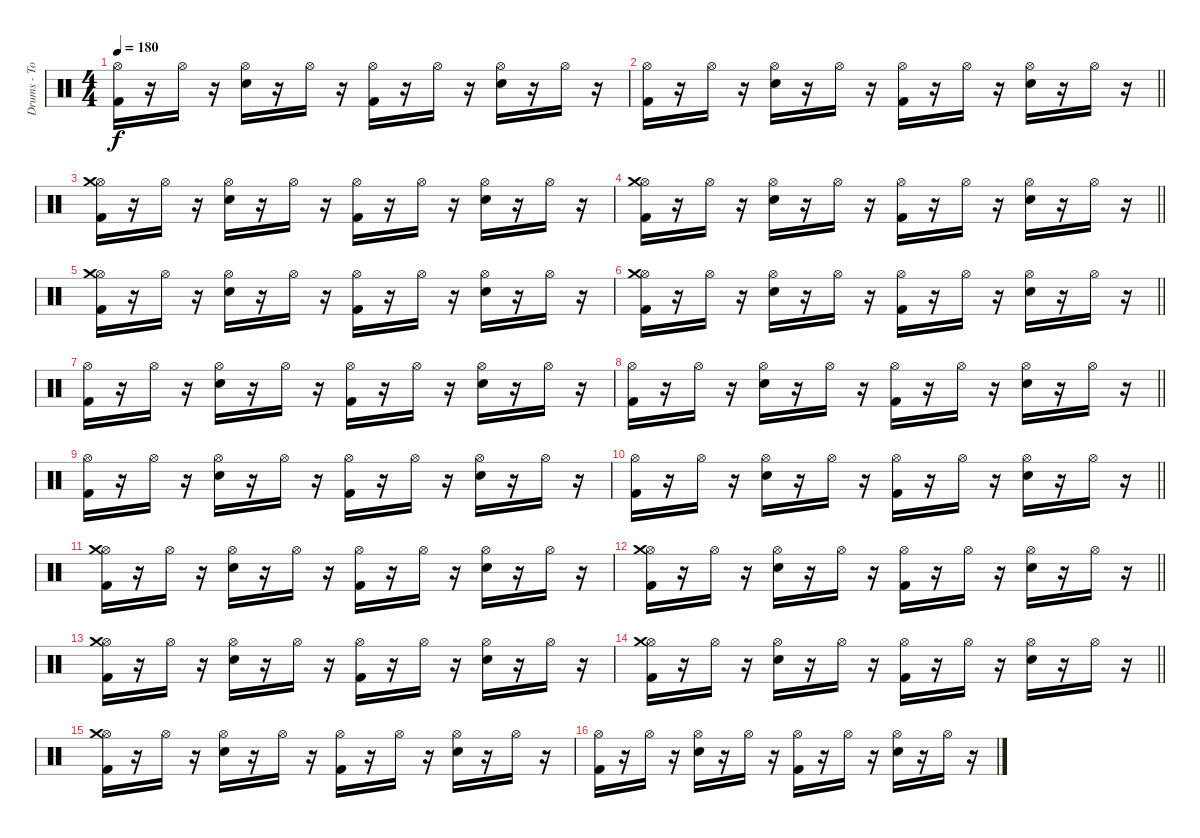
\track ("Drums - Tommy Ramone" "Drums - To") {instrument percussion}
\staff {score}
\articulation defaults
\ts (4 4)
\tempo 180
\clef neutral
\ks c
("Hi-Hat (open)" "Kick (hit) 2").16{dy f} r.16 "Hi-Hat (open)".16 r.16 ("Hi-Hat (open)" "Electric Snare (hit)").16 r.16 "Hi-Hat (open)".16 r.16 ("Hi-Hat (open)" "Kick (hit) 2").16 r.16 "Hi-Hat (open)".16 r.16 ("Hi-Hat (open)" "Electric Snare (hit)").16 r.16 "Hi-Hat (open)".16 r.16 |
\barLineRight lightlight
("Hi-Hat (open)" "Kick (hit) 2").16 r.16 "Hi-Hat (open)".16 r.16 ("Hi-Hat (open)" "Electric Snare (hit)").16 r.16 "Hi-Hat (open)".16 r.16 ("Hi-Hat (open)" "Kick (hit) 2").16 r.16 "Hi-Hat (open)".16 r.16 ("Hi-Hat (open)" "Electric Snare (hit)").16 r.16 "Hi-Hat (open)".16 r.16 |
("Hi-Hat (open)" "Crash medium (hit)" "Kick (hit) 2").16 r.16 "Hi-Hat (open)".16 r.16 ("Hi-Hat (open)" "Electric Snare (hit)").16 r.16 "Hi-Hat (open)".16 r.16 ("Hi-Hat (open)" "Kick (hit) 2").16 r.16 "Hi-Hat (open)".16 r.16 ("Hi-Hat (open)" "Electric Snare (hit)").16 r.16 "Hi-Hat (open)".16 r.16 |
\barLineRight lightlight
("Hi-Hat (open)" "Crash medium (hit)" "Kick (hit) 2").16 r.16 "Hi-Hat (open)".16 r.16 ("Hi-Hat (open)" "Electric Snare (hit)").16 r.16 "Hi-Hat (open)".16 r.16 ("Hi-Hat (open)" "Kick (hit) 2").16 r.16 "Hi-Hat (open)".16 r.16 ("Hi-Hat (open)" "Electric Snare (hit)").16 r.16 "Hi-Hat (open)".16 r.16 |
("Hi-Hat (open)" "Crash medium (hit)" "Kick (hit) 2").16 r.16 "Hi-Hat (open)".16 r.16 ("Hi-Hat (open)" "Electric Snare (hit)").16 r.16 "Hi-Hat (open)".16 r.16 ("Hi-Hat (open)" "Kick (hit) 2").16 r.16 "Hi-Hat (open)".16 r.16 ("Hi-Hat (open)" "Electric Snare (hit)").16 r.16 "Hi-Hat (open)".16 r.16 |
\barLineRight lightlight
("Hi-Hat (open)" "Crash medium (hit)" "Kick (hit) 2").16 r.16 "Hi-Hat (open)".16 r.16 ("Hi-Hat (open)" "Electric Snare (hit)").16 r.16 "Hi-Hat (open)".16 r.16 ("Hi-Hat (open)" "Kick (hit) 2").16 r.16 "Hi-Hat (open)".16 r.16 ("Hi-Hat (open)" "Electric Snare (hit)").16 r.16 "Hi-Hat (open)".16 r.16 |
("Hi-Hat (open)" "Kick (hit) 2").16 r.16 "Hi-Hat (open)".16 r.16 ("Hi-Hat (open)" "Electric Snare (hit)").16 r.16 "Hi-Hat (open)".16 r.16 ("Hi-Hat (open)" "Kick (hit) 2").16 r.16 "Hi-Hat (open)".16 r.16 ("Hi-Hat (open)" "Electric Snare (hit)").16 r.16 "Hi-Hat (open)".16 r.16 |
\barLineRight lightlight
("Hi-Hat (open)" "Kick (hit) 2").16 r.16 "Hi-Hat (open)".16 r.16 ("Hi-Hat (open)" "Electric Snare (hit)").16 r.16 "Hi-Hat (open)".16 r.16 ("Hi-Hat (open)" "Kick (hit) 2").16 r.16 "Hi-Hat (open)".16 r.16 ("Hi-Hat (open)" "Electric Snare (hit)").16 r.16 "Hi-Hat (open)".16 r.16 |
("Hi-Hat (open)" "Kick (hit) 2").16 r.16 "Hi-Hat (open)".16 r.16 ("Hi-Hat (open)" "Electric Snare (hit)").16 r.16 "Hi-Hat (open)".16 r.16 ("Hi-Hat (open)" "Kick (hit) 2").16 r.16 "Hi-Hat (open)".16 r.16 ("Hi-Hat (open)" "Electric Snare (hit)").16 r.16 "Hi-Hat (open)".16 r.16 |
\barLineRight lightlight
("Hi-Hat (open)" "Kick (hit) 2").16 r.16 "Hi-Hat (open)".16 r.16 ("Hi-Hat (open)" "Electric Snare (hit)").16 r.16 "Hi-Hat (open)".16 r.16 ("Hi-Hat (open)" "Kick (hit) 2").16 r.16 "Hi-Hat (open)".16 r.16 ("Hi-Hat (open)" "Electric Snare (hit)").16 r.16 "Hi-Hat (open)".16 r.16 |
("Hi-Hat (open)" "Crash medium (hit)" "Kick (hit) 2").16 r.16 "Hi-Hat (open)".16 r.16 ("Hi-Hat (open)" "Electric Snare (hit)").16 r.16 "Hi-Hat (open)".16 r.16 ("Hi-Hat (open)" "Kick (hit) 2").16 r.16 "Hi-Hat (open)".16 r.16 ("Hi-Hat (open)" "Electric Snare (hit)").16 r.16 "Hi-Hat (open)".16 r.16 |
\barLineRight lightlight
("Hi-Hat (open)" "Crash medium (hit)" "Kick (hit) 2").16 r.16 "Hi-Hat (open)".16 r.16 ("Hi-Hat (open)" "Electric Snare (hit)").16 r.16 "Hi-Hat (open)".16 r.16 ("Hi-Hat (open)" "Kick (hit) 2").16 r.16 "Hi-Hat (open)".16 r.16 ("Hi-Hat (open)" "Electric Snare (hit)").16 r.16 "Hi-Hat (open)".16 r.16 |
("Hi-Hat (open)" "Crash medium (hit)" "Kick (hit) 2").16 r.16 "Hi-Hat (open)".16 r.16 ("Hi-Hat (open)" "Electric Snare (hit)").16 r.16 "Hi-Hat (open)".16 r.16 ("Hi-Hat (open)" "Kick (hit) 2").16 r.16 "Hi-Hat (open)".16 r.16 ("Hi-Hat (open)" "Electric Snare (hit)").16 r.16 "Hi-Hat (open)".16 r.16 |
\barLineRight lightlight
("Hi-Hat (open)" "Crash medium (hit)" "Kick (hit) 2").16 r.16 "Hi-Hat (open)".16 r.16 ("Hi-Hat (open)" "Electric Snare (hit)").16 r.16 "Hi-Hat (open)".16 r.16 ("Hi-Hat (open)" "Kick (hit) 2").16 r.16 "Hi-Hat (open)".16 r.16 ("Hi-Hat (open)" "Electric Snare (hit)").16 r.16 "Hi-Hat (open)".16 r.16 |
("Hi-Hat (open)" "Crash medium (hit)" "Kick (hit) 2").16 r.16 "Hi-Hat (open)".16 r.16 ("Hi-Hat (open)" "Electric Snare (hit)").16 r.16 "Hi-Hat (open)".16 r.16 ("Hi-Hat (open)" "Kick (hit) 2").16 r.16 "Hi-Hat (open)".16 r.16 ("Hi-Hat (open)" "Electric Snare (hit)").16 r.16 "Hi-Hat (open)".16 r.16 |
("Hi-Hat (open)" "Kick (hit) 2").16 r.16 "Hi-Hat (open)".16 r.16 ("Hi-Hat (open)" "Electric Snare (hit)").16 r.16 "Hi-Hat (open)".16 r.16 ("Hi-Hat (open)" "Kick (hit) 2").16 r.16 "Hi-Hat (open)".16 r.16 ("Hi-Hat (open)" "Electric Snare (hit)").16 r.16 "Hi-Hat (open)".16 r.16
